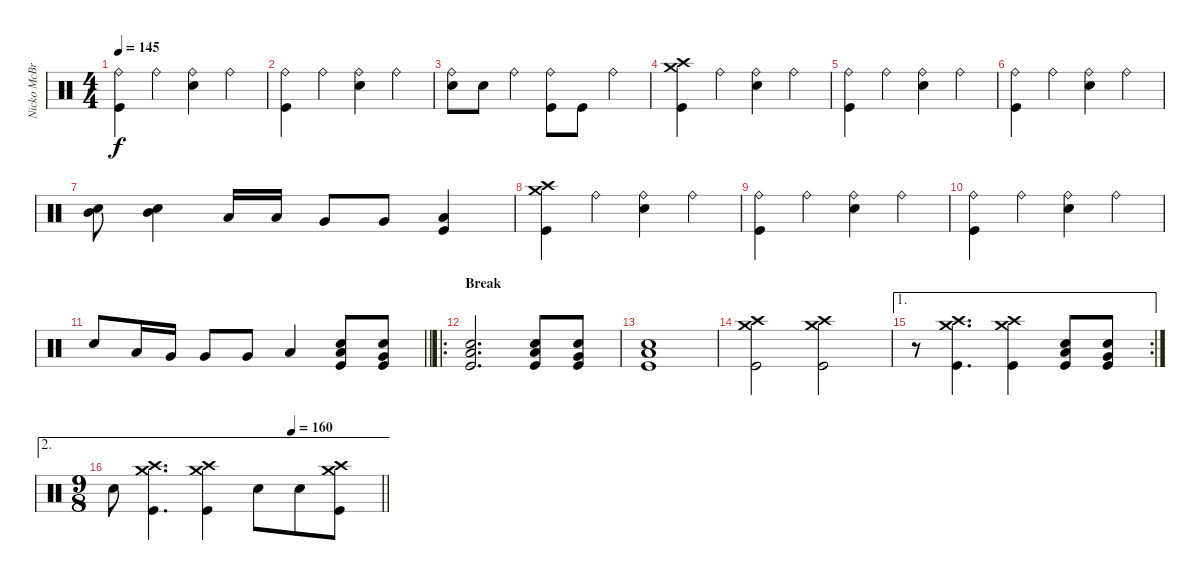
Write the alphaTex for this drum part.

\track ("Nicko McBrain" "Nicko McBr") {instrument percussion}
\staff {score}
\articulation defaults
\ts (4 4)
\tempo 145
\clef neutral
\ks c
("Ride (bell)" "Kick (hit)").4{dy f} "Ride (bell)".4 ("Ride (bell)" "Snare (hit) 2").4 "Ride (bell)".4 |
("Ride (bell)" "Kick (hit)").4 "Ride (bell)".4 ("Ride (bell)" "Snare (hit) 2").4 "Ride (bell)".4 |
("Ride (bell)" "Snare (hit) 2").8 "Snare (hit) 2".8 "Ride (bell)".4 ("Ride (bell)" "Kick (hit)").8 "Kick (hit)".8 "Ride (bell)".4 |
("Crash medium (hit)" "Crash high (hit)" "Kick (hit)").4 "Ride (bell)".4 ("Ride (bell)" "Snare (hit) 2").4 "Ride (bell)".4 |
("Ride (bell)" "Kick (hit)").4 "Ride (bell)".4 ("Ride (bell)" "Snare (hit) 2").4 "Ride (bell)".4 |
("Ride (bell)" "Kick (hit)").4 "Ride (bell)".4 ("Ride (bell)" "Snare (hit) 2").4 "Ride (bell)".4 |
("Mid Tom (hit)" "Snare (hit) 2").8 ("Mid Tom (hit)" "Snare (hit) 2").4 "Low Tom (hit)".16 "Low Tom (hit)".16 "Very Low Tom (hit)".8 "Very Low Tom (hit)".8 ("Low Floor Tom (hit)" "Kick (hit)").4 |
("Crash medium (hit)" "Crash high (hit)" "Kick (hit)").4 "Ride (bell)".4 ("Ride (bell)" "Snare (hit) 2").4 "Ride (bell)".4 |
("Ride (bell)" "Kick (hit)").4 "Ride (bell)".4 ("Ride (bell)" "Snare (hit) 2").4 "Ride (bell)".4 |
("Ride (bell)" "Kick (hit)").4 "Ride (bell)".4 ("Ride (bell)" "Snare (hit) 2").4 "Ride (bell)".4 |
\barLineRight lightlight "Snare (hit) 2".8 "Low Tom (hit)".16 "Very Low Tom (hit)".16 "Very Low Tom (hit)".8 "Very Low Tom (hit)".8 "Low Floor Tom (hit)".4
("Low Floor Tom (hit)" "Snare (hit) 2" "Kick (hit)").8 ("Very Low Tom (hit)" "Snare (hit) 2" "Kick (hit)").8 |
\ro
\section ("" "Break")
("Low Floor Tom (hit)" "Snare (hit) 2" "Kick (hit)").2{d} ("Low Floor Tom (hit)" "Snare (hit) 2" "Kick (hit)").8 ("Very Low Tom (hit)" "Snare (hit) 2" "Kick (hit)").8 |
("Low Floor Tom (hit)" "Snare (hit) 2" "Kick (hit)").1 |
("Crash medium (hit)" "Crash high (hit)" "Kick (hit)").2 ("Crash medium (hit)" "Crash high (hit)" "Kick (hit)").2 |
\ae 1
\rc 2
r.8 ("Crash medium (hit)" "Crash high (hit)" "Kick (hit)").4{d} ("Crash medium (hit)" "Crash high (hit)" "Kick (hit)").4 ("Low Floor Tom (hit)" "Snare (hit) 2" "Kick (hit)").8 ("Very Low Tom (hit)" "Snare (hit) 2" "Kick (hit)").8 |
\ae 2
\ts (9 8)
\tempo (160 0.6666666666666666)
\barLineRight lightlight "Snare (hit) 2".8
("Crash medium (hit)" "Crash high (hit)" "Kick (hit)").4{d} ("Crash medium (hit)" "Crash high (hit)" "Kick (hit)").4 "Snare (hit) 2".8 "Snare (hit) 2".8 ("Crash high (hit)" "Crash medium (hit)" "Kick (hit)").8
